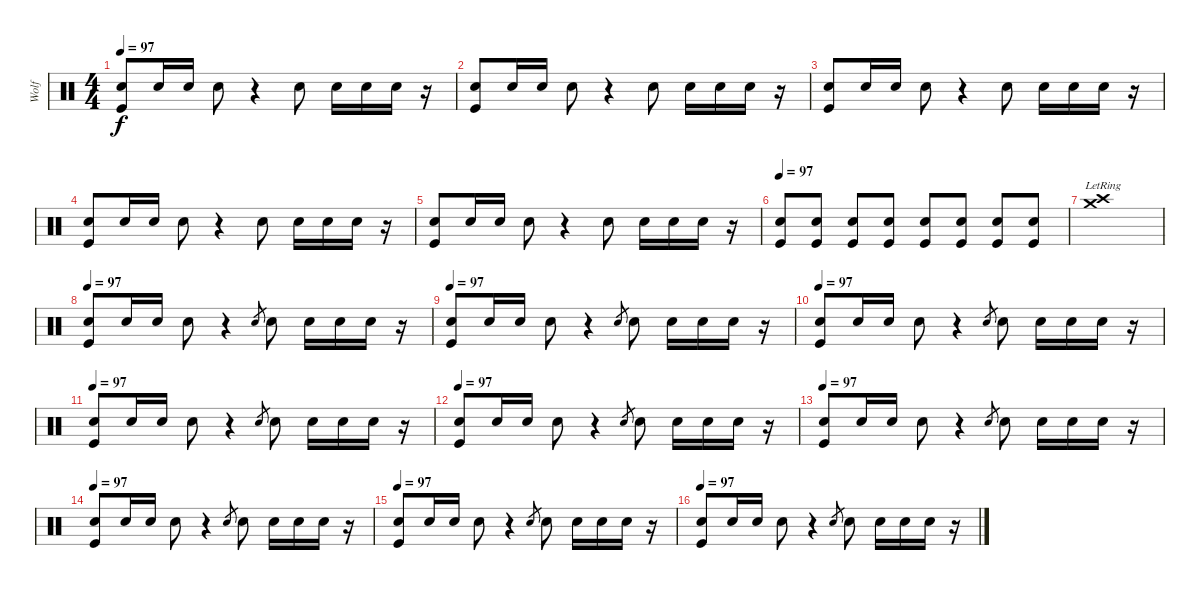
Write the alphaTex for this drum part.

\track ("Wolf" "Wolf") {instrument percussion}
\staff {score}
\articulation defaults
\ts (4 4)
\tempo 97
\clef neutral
\ks c
("Snare (hit) 2" "Kick (hit)").8{dy f} "Snare (hit) 2".16 "Snare (hit) 2".16 "Snare (hit) 2".8 r.4 "Snare (hit) 2".8 "Snare (hit) 2".16 "Snare (hit) 2".16 "Snare (hit) 2".16 r.16 |
("Snare (hit) 2" "Kick (hit)").8 "Snare (hit) 2".16 "Snare (hit) 2".16 "Snare (hit) 2".8 r.4 "Snare (hit) 2".8 "Snare (hit) 2".16 "Snare (hit) 2".16 "Snare (hit) 2".16 r.16 |
("Snare (hit) 2" "Kick (hit)").8 "Snare (hit) 2".16 "Snare (hit) 2".16 "Snare (hit) 2".8 r.4 "Snare (hit) 2".8 "Snare (hit) 2".16 "Snare (hit) 2".16 "Snare (hit) 2".16 r.16 |
("Snare (hit) 2" "Kick (hit)").8 "Snare (hit) 2".16 "Snare (hit) 2".16 "Snare (hit) 2".8 r.4 "Snare (hit) 2".8 "Snare (hit) 2".16 "Snare (hit) 2".16 "Snare (hit) 2".16 r.16 |
("Snare (hit) 2" "Kick (hit)").8 "Snare (hit) 2".16 "Snare (hit) 2".16 "Snare (hit) 2".8 r.4 "Snare (hit) 2".8 "Snare (hit) 2".16 "Snare (hit) 2".16 "Snare (hit) 2".16 r.16 |
\tempo 97
("Snare (hit) 2" "Kick (hit)").8 ("Snare (hit) 2" "Kick (hit)").8 ("Snare (hit) 2" "Kick (hit)").8 ("Snare (hit) 2" "Kick (hit)").8 ("Snare (hit) 2" "Kick (hit)").8 ("Snare (hit) 2" "Kick (hit)").8 ("Snare (hit) 2" "Kick (hit)").8 ("Snare (hit) 2" "Kick (hit)").8 |
("Crash high (hit)"{lr} "Crash medium (hit)"{lr}).1 |
\tempo 97
("Snare (hit) 2" "Kick (hit)").8 "Snare (hit) 2".16 "Snare (hit) 2".16 "Snare (hit) 2".8 r.4 "Snare (hit) 2".8{gr} "Snare (hit) 2".8 "Snare (hit) 2".16 "Snare (hit) 2".16 "Snare (hit) 2".16 r.16 |
\tempo 97
("Snare (hit) 2" "Kick (hit)").8 "Snare (hit) 2".16 "Snare (hit) 2".16 "Snare (hit) 2".8 r.4 "Snare (hit) 2".8{gr} "Snare (hit) 2".8 "Snare (hit) 2".16 "Snare (hit) 2".16 "Snare (hit) 2".16 r.16 |
\tempo 97
("Snare (hit) 2" "Kick (hit)").8 "Snare (hit) 2".16 "Snare (hit) 2".16 "Snare (hit) 2".8 r.4 "Snare (hit) 2".8{gr} "Snare (hit) 2".8 "Snare (hit) 2".16 "Snare (hit) 2".16 "Snare (hit) 2".16 r.16 |
\tempo 97
("Snare (hit) 2" "Kick (hit)").8 "Snare (hit) 2".16 "Snare (hit) 2".16 "Snare (hit) 2".8 r.4 "Snare (hit) 2".8{gr} "Snare (hit) 2".8 "Snare (hit) 2".16 "Snare (hit) 2".16 "Snare (hit) 2".16 r.16 |
\tempo 97
("Snare (hit) 2" "Kick (hit)").8 "Snare (hit) 2".16 "Snare (hit) 2".16 "Snare (hit) 2".8 r.4 "Snare (hit) 2".8{gr} "Snare (hit) 2".8 "Snare (hit) 2".16 "Snare (hit) 2".16 "Snare (hit) 2".16 r.16 |
\tempo 97
("Snare (hit) 2" "Kick (hit)").8 "Snare (hit) 2".16 "Snare (hit) 2".16 "Snare (hit) 2".8 r.4 "Snare (hit) 2".8{gr} "Snare (hit) 2".8 "Snare (hit) 2".16 "Snare (hit) 2".16 "Snare (hit) 2".16 r.16 |
\tempo 97
("Snare (hit) 2" "Kick (hit)").8 "Snare (hit) 2".16 "Snare (hit) 2".16 "Snare (hit) 2".8 r.4 "Snare (hit) 2".8{gr} "Snare (hit) 2".8 "Snare (hit) 2".16 "Snare (hit) 2".16 "Snare (hit) 2".16 r.16 |
\tempo 97
("Snare (hit) 2" "Kick (hit)").8 "Snare (hit) 2".16 "Snare (hit) 2".16 "Snare (hit) 2".8 r.4 "Snare (hit) 2".8{gr} "Snare (hit) 2".8 "Snare (hit) 2".16 "Snare (hit) 2".16 "Snare (hit) 2".16 r.16 |
\tempo 97
("Snare (hit) 2" "Kick (hit)").8 "Snare (hit) 2".16 "Snare (hit) 2".16 "Snare (hit) 2".8 r.4 "Snare (hit) 2".8{gr} "Snare (hit) 2".8 "Snare (hit) 2".16 "Snare (hit) 2".16 "Snare (hit) 2".16 r.16
